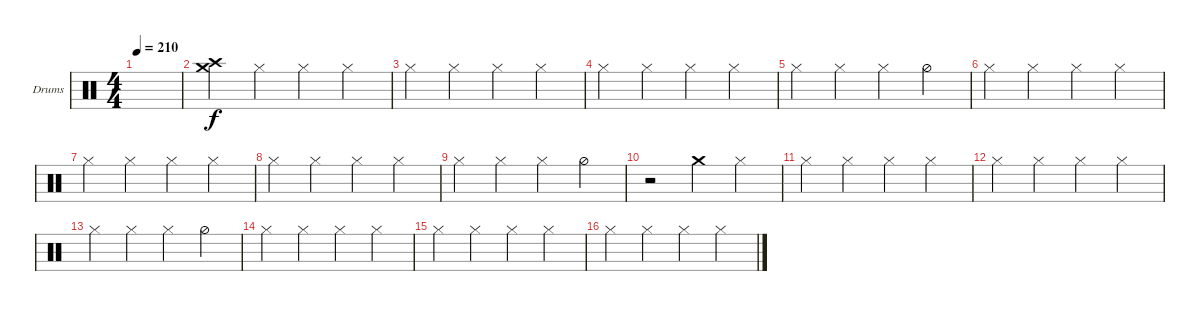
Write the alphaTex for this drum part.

\defaultSystemsLayout 4
\bracketExtendMode groupsimilarinstruments
\firstSystemTrackNameOrientation horizontal
\otherSystemsTrackNameOrientation horizontal
\track ("Helders" "Drums") {instrument percussion}
\staff {score}
\articulation defaults
\ts (4 4)
\tempo 210
\clef neutral
\ks c
|
("Crash medium (hit)" "Crash high (hit)").4 "Hi-Hat (closed)".4 "Hi-Hat (closed)".4 "Hi-Hat (closed)".4 |
"Hi-Hat (closed)".4 "Hi-Hat (closed)".4 "Hi-Hat (closed)".4 "Hi-Hat (closed)".4 |
"Hi-Hat (closed)".4 "Hi-Hat (closed)".4 "Hi-Hat (closed)".4 "Hi-Hat (closed)".4 |
"Hi-Hat (closed)".4 "Hi-Hat (closed)".4 "Hi-Hat (closed)".4 "Hi-Hat (half)".4 |
"Hi-Hat (closed)".4 "Hi-Hat (closed)".4 "Hi-Hat (closed)".4 "Hi-Hat (closed)".4 |
"Hi-Hat (closed)".4 "Hi-Hat (closed)".4 "Hi-Hat (closed)".4 "Hi-Hat (closed)".4 |
"Hi-Hat (closed)".4 "Hi-Hat (closed)".4 "Hi-Hat (closed)".4 "Hi-Hat (closed)".4 |
"Hi-Hat (closed)".4 "Hi-Hat (closed)".4 "Hi-Hat (closed)".4 "Hi-Hat (half)".4 |
r.2 "Crash medium (hit)".4 "Hi-Hat (closed)".4 |
"Hi-Hat (closed)".4 "Hi-Hat (closed)".4 "Hi-Hat (closed)".4 "Hi-Hat (closed)".4 |
"Hi-Hat (closed)".4 "Hi-Hat (closed)".4 "Hi-Hat (closed)".4 "Hi-Hat (closed)".4 |
"Hi-Hat (closed)".4 "Hi-Hat (closed)".4 "Hi-Hat (closed)".4 "Hi-Hat (half)".4 |
"Hi-Hat (closed)".4 "Hi-Hat (closed)".4 "Hi-Hat (closed)".4 "Hi-Hat (closed)".4 |
"Hi-Hat (closed)".4 "Hi-Hat (closed)".4 "Hi-Hat (closed)".4 "Hi-Hat (closed)".4 |
"Hi-Hat (closed)".4 "Hi-Hat (closed)".4 "Hi-Hat (closed)".4 "Hi-Hat (closed)".4
